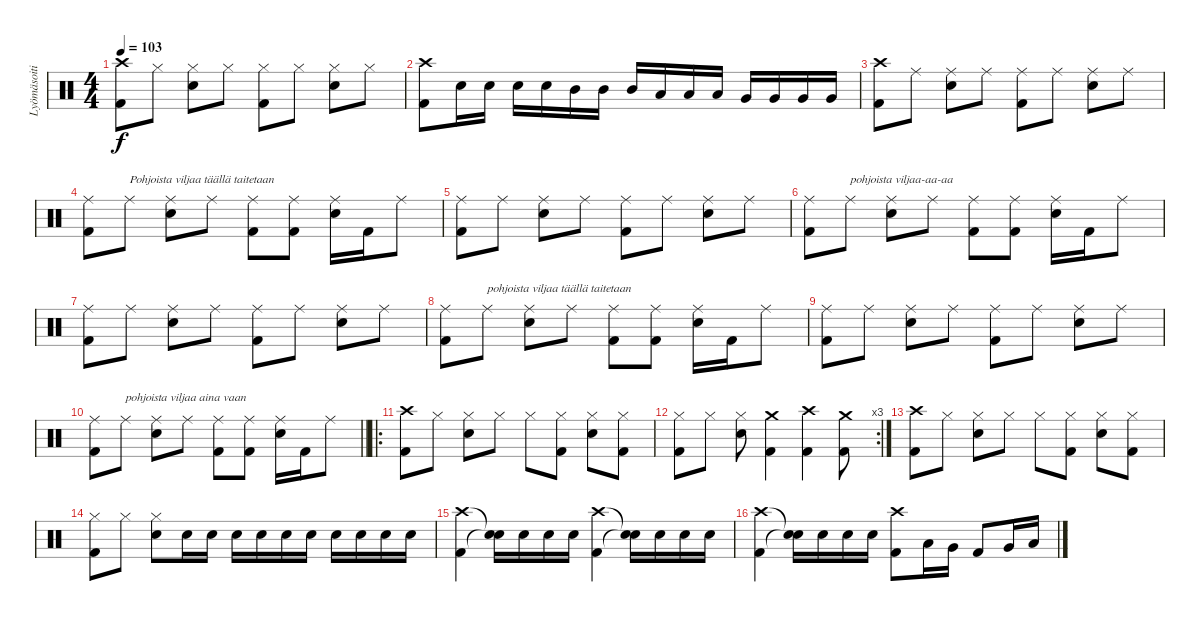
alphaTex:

\track ("Lyömäsoitin" "Lyömäsoiti") {instrument percussion}
\staff {score}
\articulation defaults
\ts (4 4)
\tempo 103
\clef neutral
\ks c
("Crash high (hit)" "Kick (hit) 2").8{dy f} "Hi-Hat (closed)".8 ("Hi-Hat (closed)" "Snare (hit) 2").8 "Hi-Hat (closed)".8 ("Hi-Hat (closed)" "Kick (hit) 2").8 "Hi-Hat (closed)".8 ("Hi-Hat (closed)" "Snare (hit) 2").8 "Hi-Hat (closed)".8 |
("Crash high (hit)" "Kick (hit) 2").8 "Snare (hit) 2".16 "Snare (hit) 2".16 "Snare (hit) 2".16 "Snare (hit) 2".16 "Mid Tom (hit)".16 "Mid Tom (hit)".16 "Mid Tom (hit)".16 "Low Tom (hit)".16 "Low Tom (hit)".16 "Low Tom (hit)".16 "Very Low Tom (hit)".16 "Very Low Tom (hit)".16 "Very Low Tom (hit)".16 "Very Low Tom (hit)".16 |
("Crash high (hit)" "Kick (hit) 2").8 "Ride (middle)".8 ("Ride (middle)" "Snare (hit) 2").8 "Ride (middle)".8 ("Ride (middle)" "Kick (hit) 2").8 "Ride (middle)".8 ("Ride (middle)" "Snare (hit) 2").8 "Ride (middle)".8 |
("Ride (middle)" "Kick (hit) 2").8 "Ride (middle)".8{txt "Pohjoista viljaa täällä taitetaan"} ("Ride (middle)" "Snare (hit) 2").8 "Ride (middle)".8 ("Ride (middle)" "Kick (hit) 2").8 ("Ride (middle)" "Kick (hit) 2").8 ("Ride (middle)" "Snare (hit) 2").16 "Kick (hit) 2".16 "Ride (middle)".8 |
("Ride (middle)" "Kick (hit) 2").8 "Ride (middle)".8 ("Ride (middle)" "Snare (hit) 2").8 "Ride (middle)".8 ("Ride (middle)" "Kick (hit) 2").8 "Ride (middle)".8 ("Ride (middle)" "Snare (hit) 2").8 "Ride (middle)".8 |
("Ride (middle)" "Kick (hit) 2").8 "Ride (middle)".8{txt "pohjoista viljaa-aa-aa"} ("Ride (middle)" "Snare (hit) 2").8 "Ride (middle)".8 ("Ride (middle)" "Kick (hit) 2").8 ("Ride (middle)" "Kick (hit) 2").8 ("Ride (middle)" "Snare (hit) 2").16 "Kick (hit) 2".16 "Ride (middle)".8 |
("Ride (middle)" "Kick (hit) 2").8 "Ride (middle)".8 ("Ride (middle)" "Snare (hit) 2").8 "Ride (middle)".8 ("Ride (middle)" "Kick (hit) 2").8 "Ride (middle)".8 ("Ride (middle)" "Snare (hit) 2").8 "Ride (middle)".8 |
("Ride (middle)" "Kick (hit) 2").8 "Ride (middle)".8{txt "pohjoista viljaa täällä taitetaan"} ("Ride (middle)" "Snare (hit) 2").8 "Ride (middle)".8 ("Ride (middle)" "Kick (hit) 2").8 ("Ride (middle)" "Kick (hit) 2").8 ("Ride (middle)" "Snare (hit) 2").16 "Kick (hit) 2".16 "Ride (middle)".8 |
("Ride (middle)" "Kick (hit) 2").8 "Ride (middle)".8 ("Ride (middle)" "Snare (hit) 2").8 "Ride (middle)".8 ("Ride (middle)" "Kick (hit) 2").8 "Ride (middle)".8 ("Ride (middle)" "Snare (hit) 2").8 "Ride (middle)".8 |
\barLineRight lightlight
("Ride (middle)" "Kick (hit) 2").8 "Ride (middle)".8{txt "pohjoista viljaa aina vaan"} ("Ride (middle)" "Snare (hit) 2").8 "Ride (middle)".8 ("Ride (middle)" "Kick (hit) 2").8 ("Ride (middle)" "Kick (hit) 2").8 ("Ride (middle)" "Snare (hit) 2").16 "Kick (hit) 2".16 "Ride (middle)".8 |
\ro
("Crash high (hit)" "Kick (hit) 2").8 "Hi-Hat (closed)".8 ("Hi-Hat (closed)" "Snare (hit) 2").8 "Hi-Hat (closed)".8 "Hi-Hat (closed)".8 ("Hi-Hat (closed)" "Kick (hit) 2").8 ("Hi-Hat (closed)" "Snare (hit) 2").8 ("Hi-Hat (closed)" "Kick (hit) 2").8 |
\rc 3
("Hi-Hat (closed)" "Kick (hit) 2").8 "Hi-Hat (closed)".8 ("Hi-Hat (closed)" "Snare (hit) 2").8 ("Crash medium (hit)" "Kick (hit) 2").4 ("Crash high (hit)" "Kick (hit) 2").4 ("Crash medium (hit)" "Kick (hit) 2").8 |
("Crash high (hit)" "Kick (hit) 2").8 "Hi-Hat (closed)".8 ("Hi-Hat (closed)" "Snare (hit) 2").8 "Hi-Hat (closed)".8 "Hi-Hat (closed)".8 ("Hi-Hat (closed)" "Kick (hit) 2").8 ("Hi-Hat (closed)" "Snare (hit) 2").8 ("Hi-Hat (closed)" "Kick (hit) 2").8 |
("Hi-Hat (closed)" "Kick (hit) 2").8 "Hi-Hat (closed)".8 ("Hi-Hat (closed)" "Snare (hit) 2").8 "Snare (hit) 2".16 "Snare (hit) 2".16 "Snare (hit) 2".16 "Snare (hit) 2".16 "Snare (hit) 2".16 "Snare (hit) 2".16 "Snare (hit) 2".16 "Snare (hit) 2".16 "Snare (hit) 2".16 "Snare (hit) 2".16 |
("Crash high (hit)" "Kick (hit) 2").4 ("Snare (hit)"{t} "Snare (hit)"{t}).16 "Snare (hit) 2".16 "Snare (hit) 2".16 "Snare (hit) 2".16 ("Crash high (hit)" "Kick (hit) 2").4 ("Snare (hit)"{t} "Snare (hit)"{t}).16 "Snare (hit) 2".16 "Snare (hit) 2".16 "Snare (hit) 2".16 |
("Crash high (hit)" "Kick (hit) 2").4 ("Snare (hit)"{t} "Snare (hit)"{t}).16 "Snare (hit) 2".16 "Snare (hit) 2".16 "Snare (hit) 2".16 ("Crash high (hit)" "Kick (hit) 2").8 "Low Tom (hit)".16 "Very Low Tom (hit)".16 "Kick (hit) 2".8 "Very Low Tom (hit)".16 "Low Floor Tom (hit)".16
